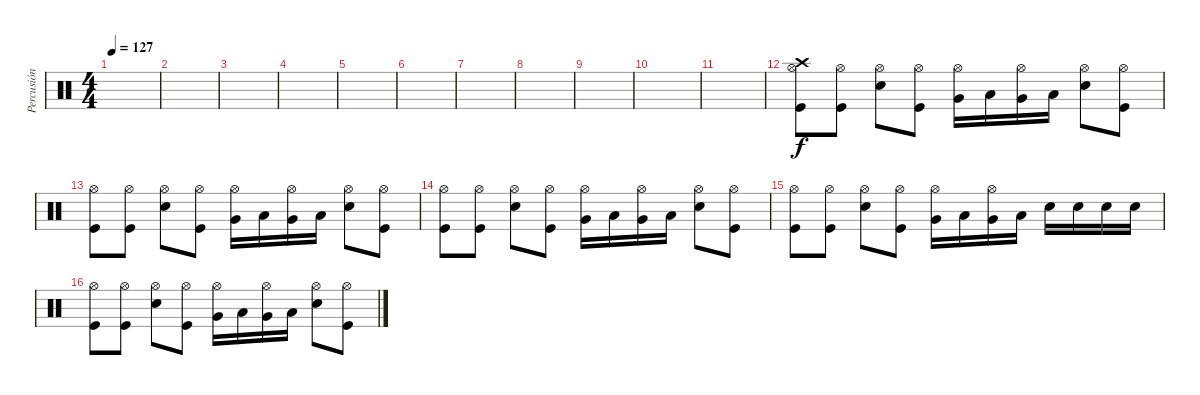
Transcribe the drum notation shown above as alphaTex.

\track ("Percusión" "Percusión") {instrument percussion}
\staff {score}
\articulation defaults
\ts (4 4)
\tempo 127
\clef neutral
\ks c
|
|
|
|
|
|
|
|
|
|
|
("Kick (hit)" "Hi-Hat (open)" "Crash high (hit)").8{dy f} ("Kick (hit)" "Hi-Hat (open)").8 ("Snare (hit) 2" "Hi-Hat (open)").8 ("Kick (hit)" "Hi-Hat (open)").8 ("Very Low Tom (hit)" "Hi-Hat (open)").16 "Low Tom (hit)".16 ("Very Low Tom (hit)" "Hi-Hat (open)").16 "Low Tom (hit)".16 ("Snare (hit) 2" "Hi-Hat (open)").8 ("Kick (hit)" "Hi-Hat (open)").8 |
("Kick (hit)" "Hi-Hat (open)").8 ("Kick (hit)" "Hi-Hat (open)").8 ("Snare (hit) 2" "Hi-Hat (open)").8 ("Kick (hit)" "Hi-Hat (open)").8 ("Very Low Tom (hit)" "Hi-Hat (open)").16 "Low Tom (hit)".16 ("Very Low Tom (hit)" "Hi-Hat (open)").16 "Low Tom (hit)".16 ("Snare (hit) 2" "Hi-Hat (open)").8 ("Kick (hit)" "Hi-Hat (open)").8 |
("Kick (hit)" "Hi-Hat (open)").8 ("Kick (hit)" "Hi-Hat (open)").8 ("Snare (hit) 2" "Hi-Hat (open)").8 ("Kick (hit)" "Hi-Hat (open)").8 ("Very Low Tom (hit)" "Hi-Hat (open)").16 "Low Tom (hit)".16 ("Very Low Tom (hit)" "Hi-Hat (open)").16 "Low Tom (hit)".16 ("Snare (hit) 2" "Hi-Hat (open)").8 ("Kick (hit)" "Hi-Hat (open)").8 |
("Kick (hit)" "Hi-Hat (open)").8 ("Kick (hit)" "Hi-Hat (open)").8 ("Snare (hit) 2" "Hi-Hat (open)").8 ("Kick (hit)" "Hi-Hat (open)").8 ("Very Low Tom (hit)" "Hi-Hat (open)").16 "Low Tom (hit)".16 ("Very Low Tom (hit)" "Hi-Hat (open)").16 "Low Tom (hit)".16 "Snare (hit) 2".16 "Snare (hit) 2".16 "Snare (hit) 2".16 "Snare (hit) 2".16 |
("Kick (hit)" "Hi-Hat (open)").8 ("Kick (hit)" "Hi-Hat (open)").8 ("Snare (hit) 2" "Hi-Hat (open)").8 ("Kick (hit)" "Hi-Hat (open)").8 ("Very Low Tom (hit)" "Hi-Hat (open)").16 "Low Tom (hit)".16 ("Very Low Tom (hit)" "Hi-Hat (open)").16 "Low Tom (hit)".16 ("Snare (hit) 2" "Hi-Hat (open)").8 ("Kick (hit)" "Hi-Hat (open)").8
